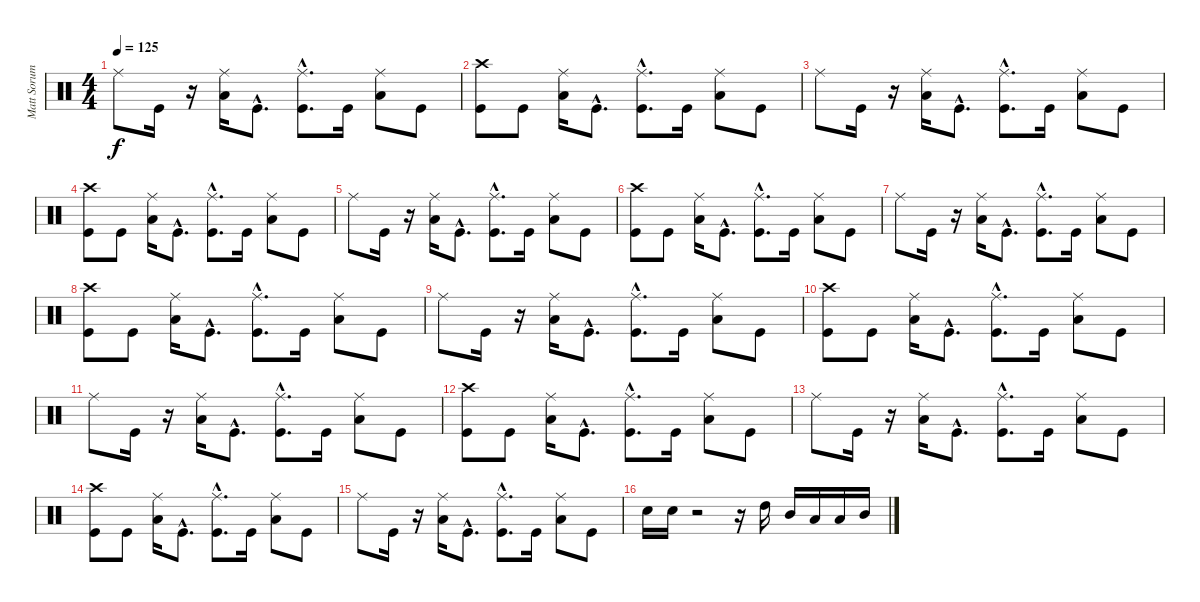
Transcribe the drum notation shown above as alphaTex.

\track ("Matt Sorum" "Matt Sorum") {instrument percussion}
\staff {score}
\articulation defaults
\ts (4 4)
\tempo 125
\clef neutral
\ks c "Ride (middle)".8{dy f} "Kick (hit)".16
r.16 ("Low Tom (hit)" "Ride (middle)").16 "Kick (hit)"{hac}.8{d} ("Ride (middle)" "Kick (hit)"{hac}).8{d} "Kick (hit)".16 ("Low Tom (hit)" "Ride (middle)").8 "Kick (hit)".8 |
("Crash high (hit)" "Kick (hit)").8 "Kick (hit)".8 ("Low Tom (hit)" "Ride (middle)").16 "Kick (hit)"{hac}.8{d} ("Ride (middle)" "Kick (hit)"{hac}).8{d} "Kick (hit)".16 ("Low Tom (hit)" "Ride (middle)").8 "Kick (hit)".8 |
"Ride (middle)".8 "Kick (hit)".16 r.16 ("Low Tom (hit)" "Ride (middle)").16 "Kick (hit)"{hac}.8{d} ("Ride (middle)" "Kick (hit)"{hac}).8{d} "Kick (hit)".16 ("Low Tom (hit)" "Ride (middle)").8 "Kick (hit)".8 |
("Crash high (hit)" "Kick (hit)").8 "Kick (hit)".8 ("Low Tom (hit)" "Ride (middle)").16 "Kick (hit)"{hac}.8{d} ("Ride (middle)" "Kick (hit)"{hac}).8{d} "Kick (hit)".16 ("Low Tom (hit)" "Ride (middle)").8 "Kick (hit)".8 |
"Ride (middle)".8 "Kick (hit)".16 r.16 ("Low Tom (hit)" "Ride (middle)").16 "Kick (hit)"{hac}.8{d} ("Ride (middle)" "Kick (hit)"{hac}).8{d} "Kick (hit)".16 ("Low Tom (hit)" "Ride (middle)").8 "Kick (hit)".8 |
("Crash high (hit)" "Kick (hit)").8 "Kick (hit)".8 ("Low Tom (hit)" "Ride (middle)").16 "Kick (hit)"{hac}.8{d} ("Ride (middle)" "Kick (hit)"{hac}).8{d} "Kick (hit)".16 ("Low Tom (hit)" "Ride (middle)").8 "Kick (hit)".8 |
"Ride (middle)".8 "Kick (hit)".16 r.16 ("Low Tom (hit)" "Ride (middle)").16 "Kick (hit)"{hac}.8{d} ("Ride (middle)" "Kick (hit)"{hac}).8{d} "Kick (hit)".16 ("Low Tom (hit)" "Ride (middle)").8 "Kick (hit)".8 |
("Crash high (hit)" "Kick (hit)").8 "Kick (hit)".8 ("Low Tom (hit)" "Ride (middle)").16 "Kick (hit)"{hac}.8{d} ("Ride (middle)" "Kick (hit)"{hac}).8{d} "Kick (hit)".16 ("Low Tom (hit)" "Ride (middle)").8 "Kick (hit)".8 |
"Ride (middle)".8 "Kick (hit)".16 r.16 ("Low Tom (hit)" "Ride (middle)").16 "Kick (hit)"{hac}.8{d} ("Ride (middle)" "Kick (hit)"{hac}).8{d} "Kick (hit)".16 ("Low Tom (hit)" "Ride (middle)").8 "Kick (hit)".8 |
("Crash high (hit)" "Kick (hit)").8 "Kick (hit)".8 ("Low Tom (hit)" "Ride (middle)").16 "Kick (hit)"{hac}.8{d} ("Ride (middle)" "Kick (hit)"{hac}).8{d} "Kick (hit)".16 ("Low Tom (hit)" "Ride (middle)").8 "Kick (hit)".8 |
"Ride (middle)".8 "Kick (hit)".16 r.16 ("Low Tom (hit)" "Ride (middle)").16 "Kick (hit)"{hac}.8{d} ("Ride (middle)" "Kick (hit)"{hac}).8{d} "Kick (hit)".16 ("Low Tom (hit)" "Ride (middle)").8 "Kick (hit)".8 |
("Crash high (hit)" "Kick (hit)").8 "Kick (hit)".8 ("Low Tom (hit)" "Ride (middle)").16 "Kick (hit)"{hac}.8{d} ("Ride (middle)" "Kick (hit)"{hac}).8{d} "Kick (hit)".16 ("Low Tom (hit)" "Ride (middle)").8 "Kick (hit)".8 |
"Ride (middle)".8 "Kick (hit)".16 r.16 ("Low Tom (hit)" "Ride (middle)").16 "Kick (hit)"{hac}.8{d} ("Ride (middle)" "Kick (hit)"{hac}).8{d} "Kick (hit)".16 ("Low Tom (hit)" "Ride (middle)").8 "Kick (hit)".8 |
("Crash high (hit)" "Kick (hit)").8 "Kick (hit)".8 ("Low Tom (hit)" "Ride (middle)").16 "Kick (hit)"{hac}.8{d} ("Ride (middle)" "Kick (hit)"{hac}).8{d} "Kick (hit)".16 ("Low Tom (hit)" "Ride (middle)").8 "Kick (hit)".8 |
"Ride (middle)".8 "Kick (hit)".16 r.16 ("Low Tom (hit)" "Ride (middle)").16 "Kick (hit)"{hac}.8{d} ("Ride (middle)" "Kick (hit)"{hac}).8{d} "Kick (hit)".16 ("Low Tom (hit)" "Ride (middle)").8 "Kick (hit)".8 |
"Electric Snare (hit)".16 "Electric Snare (hit)".16 r.2 r.16 "High Tom (hit)".16 "Mid Tom (hit)".16 "Low Tom (hit)".16 "Low Tom (hit)".16 "Mid Tom (hit)".16
